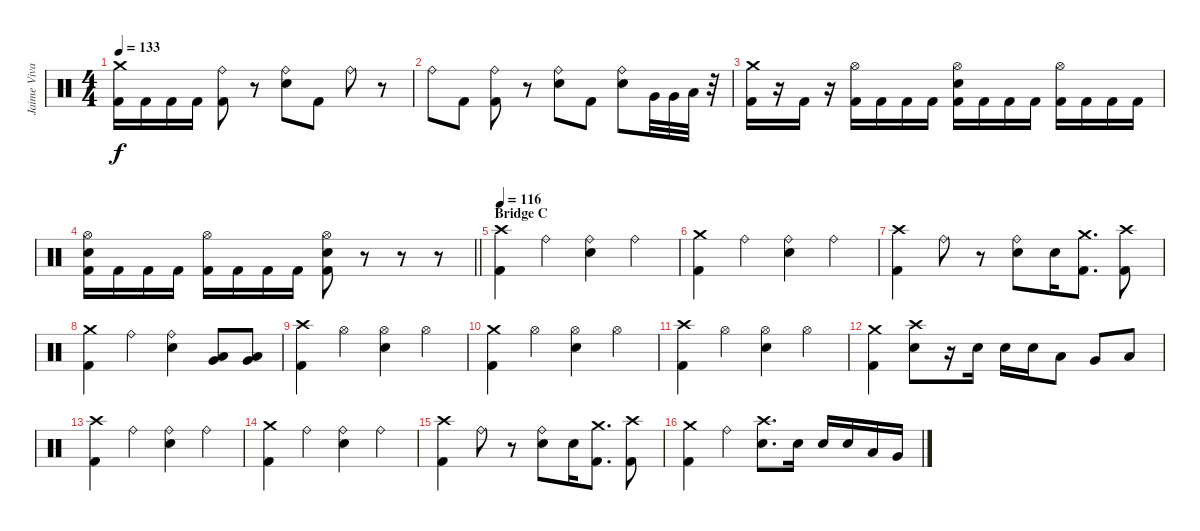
\track ("Jaime Vivar" "Jaime Viva") {instrument percussion}
\staff {score}
\articulation defaults
\ts (4 4)
\tempo 133
\clef neutral
\ks c
("Crash medium (hit)" "Kick (hit) 2").16{dy f} "Kick (hit) 2".16 "Kick (hit) 2".16 "Kick (hit) 2".16 ("Ride (bell)" "Kick (hit) 2").8 r.8 ("Ride (bell)" "Snare (hit) 2").8 "Kick (hit) 2".8 "Ride (bell)".8 r.8 |
"Ride (bell)".8 "Kick (hit) 2".8 ("Ride (bell)" "Kick (hit) 2").8 r.8 ("Ride (bell)" "Snare (hit) 2").8 "Kick (hit) 2".8 ("Ride (bell)" "Snare (hit) 2").8 "Very Low Tom (hit)".32 "Very Low Tom (hit)".32 "Low Floor Tom (hit)".32 r.32 |
("Crash medium (hit)" "Kick (hit) 2").16 r.16 "Kick (hit) 2".16 r.16 ("Hi-Hat (open)" "Kick (hit) 2").16 "Kick (hit) 2".16 "Kick (hit) 2".16 "Kick (hit) 2".16 ("Hi-Hat (open)" "Snare (hit) 2" "Kick (hit) 2").16 "Kick (hit) 2".16 "Kick (hit) 2".16 "Kick (hit) 2".16 ("Hi-Hat (open)" "Kick (hit) 2").16 "Kick (hit) 2".16 "Kick (hit) 2".16 "Kick (hit) 2".16 |
\barLineRight lightlight
("Hi-Hat (open)" "Snare (hit) 2" "Kick (hit) 2").16 "Kick (hit) 2".16 "Kick (hit) 2".16 "Kick (hit) 2".16 ("Hi-Hat (open)" "Kick (hit) 2").16 "Kick (hit) 2".16 "Kick (hit) 2".16 "Kick (hit) 2".16 ("Hi-Hat (open)" "Snare (hit) 2" "Kick (hit) 2").8 r.8 r.8 r.8 |
\section ("" "Bridge C")
\tempo 116
("Crash high (hit)" "Kick (hit) 2").4 "Ride (bell)".4 ("Ride (bell)" "Snare (hit) 2").4 "Ride (bell)".4 |
("Crash medium (hit)" "Kick (hit) 2").4 "Ride (bell)".4 ("Ride (bell)" "Snare (hit) 2").4 "Ride (bell)".4 |
("Crash high (hit)" "Kick (hit) 2").4 "Ride (bell)".8 r.8 ("Ride (bell)" "Snare (hit) 2").8 "Snare (hit) 2".16 ("Crash medium (hit)" "Kick (hit) 2").8{d} ("Crash high (hit)" "Kick (hit) 2").8 |
("Crash medium (hit)" "Kick (hit) 2").4 "Ride (bell)".4 ("Ride (bell)" "Snare (hit) 2").4 ("Low Tom (hit)" "Very Low Tom (hit)").8 ("Low Tom (hit)" "Very Low Tom (hit)").8 |
("Crash high (hit)" "Kick (hit) 2").4 "Hi-Hat (open)".4 ("Hi-Hat (open)" "Snare (hit) 2").4 "Hi-Hat (open)".4 |
("Crash medium (hit)" "Kick (hit) 2").4 "Hi-Hat (open)".4 ("Hi-Hat (open)" "Snare (hit) 2").4 "Hi-Hat (open)".4 |
("Crash high (hit)" "Kick (hit) 2").4 "Hi-Hat (open)".4 ("Hi-Hat (open)" "Snare (hit) 2").4 "Hi-Hat (open)".4 |
("Crash medium (hit)" "Kick (hit) 2").4 ("Crash high (hit)" "Snare (hit) 2").8 r.16 "Snare (hit) 2".16 "Snare (hit) 2".16 "Snare (hit) 2".16 "Low Tom (hit)".8 "Very Low Tom (hit)".8 "Low Floor Tom (hit)".8 |
("Crash high (hit)" "Kick (hit) 2").4 "Ride (bell)".4 ("Ride (bell)" "Snare (hit) 2").4 "Ride (bell)".4 |
("Crash medium (hit)" "Kick (hit) 2").4 "Ride (bell)".4 ("Ride (bell)" "Snare (hit) 2").4 "Ride (bell)".4 |
("Crash high (hit)" "Kick (hit) 2").4 "Ride (bell)".8 r.8 ("Ride (bell)" "Snare (hit) 2").8 "Snare (hit) 2".16 ("Crash medium (hit)" "Kick (hit) 2").8{d} ("Crash high (hit)" "Kick (hit) 2").8 |
("Crash medium (hit)" "Kick (hit) 2").4 "Ride (bell)".4 ("Crash high (hit)" "Snare (hit) 2").8{d} "Snare (hit) 2".16 "Snare (hit) 2".16 "Snare (hit) 2".16 "Low Tom (hit)".16 "Very Low Tom (hit)".16
